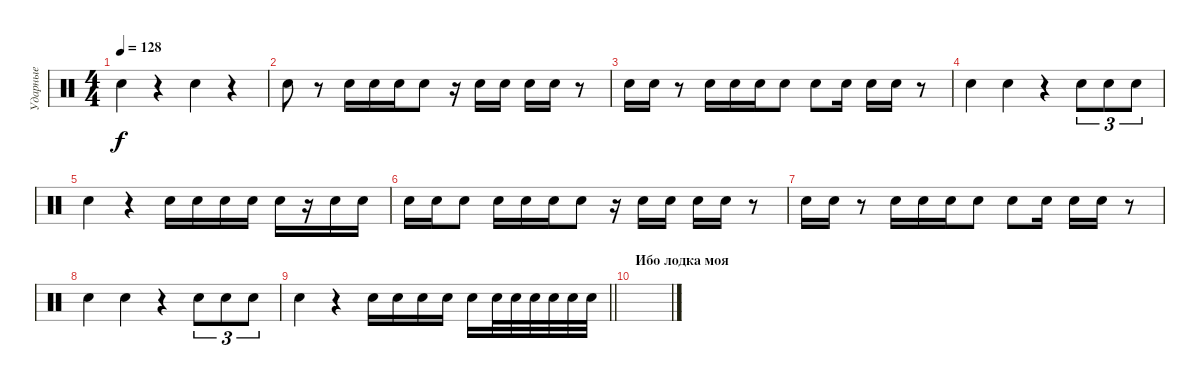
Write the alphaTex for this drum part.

\track ("Ударные" "Ударные") {instrument percussion}
\staff {score}
\articulation defaults
\ts (4 4)
\tempo 128
\clef neutral
\ks c "Electric Snare (hit)".4{dy f}
r.4 "Electric Snare (hit)".4 r.4 |
"Electric Snare (hit)".8 r.8 "Electric Snare (hit)".16 "Electric Snare (hit)".16 "Electric Snare (hit)".16 "Electric Snare (hit)".8 r.16 "Electric Snare (hit)".16 "Electric Snare (hit)".16 "Electric Snare (hit)".16 "Electric Snare (hit)".16 r.8 |
"Electric Snare (hit)".16 "Electric Snare (hit)".16 r.8 "Electric Snare (hit)".16 "Electric Snare (hit)".16 "Electric Snare (hit)".16 "Electric Snare (hit)".8 "Electric Snare (hit)".8 "Electric Snare (hit)".16 "Electric Snare (hit)".16 "Electric Snare (hit)".16 r.8 |
"Electric Snare (hit)".4 "Electric Snare (hit)".4 r.4 "Electric Snare (hit)".8{tu (3 2)} "Electric Snare (hit)".8{tu (3 2)} "Electric Snare (hit)".8{tu (3 2)} |
"Electric Snare (hit)".4 r.4 "Electric Snare (hit)".16 "Electric Snare (hit)".16 "Electric Snare (hit)".16 "Electric Snare (hit)".16 "Electric Snare (hit)".16 r.16 "Electric Snare (hit)".16 "Electric Snare (hit)".16 |
"Electric Snare (hit)".16 "Electric Snare (hit)".16 "Electric Snare (hit)".8 "Electric Snare (hit)".16 "Electric Snare (hit)".16 "Electric Snare (hit)".16 "Electric Snare (hit)".8 r.16 "Electric Snare (hit)".16 "Electric Snare (hit)".16 "Electric Snare (hit)".16 "Electric Snare (hit)".16 r.8 |
"Electric Snare (hit)".16 "Electric Snare (hit)".16 r.8 "Electric Snare (hit)".16 "Electric Snare (hit)".16 "Electric Snare (hit)".16 "Electric Snare (hit)".8 "Electric Snare (hit)".8 "Electric Snare (hit)".16 "Electric Snare (hit)".16 "Electric Snare (hit)".16 r.8 |
"Electric Snare (hit)".4 "Electric Snare (hit)".4 r.4 "Electric Snare (hit)".8{tu (3 2)} "Electric Snare (hit)".8{tu (3 2)} "Electric Snare (hit)".8{tu (3 2)} |
\barLineRight lightlight "Electric Snare (hit)".4
r.4 "Electric Snare (hit)".16 "Electric Snare (hit)".16 "Electric Snare (hit)".16 "Electric Snare (hit)".16 "Electric Snare (hit)".16 "Electric Snare (hit)".32 "Electric Snare (hit)".32 "Electric Snare (hit)".32 "Electric Snare (hit)".32 "Electric Snare (hit)".32 "Electric Snare (hit)".32 |
\section ("" "Ибо лодка моя")
